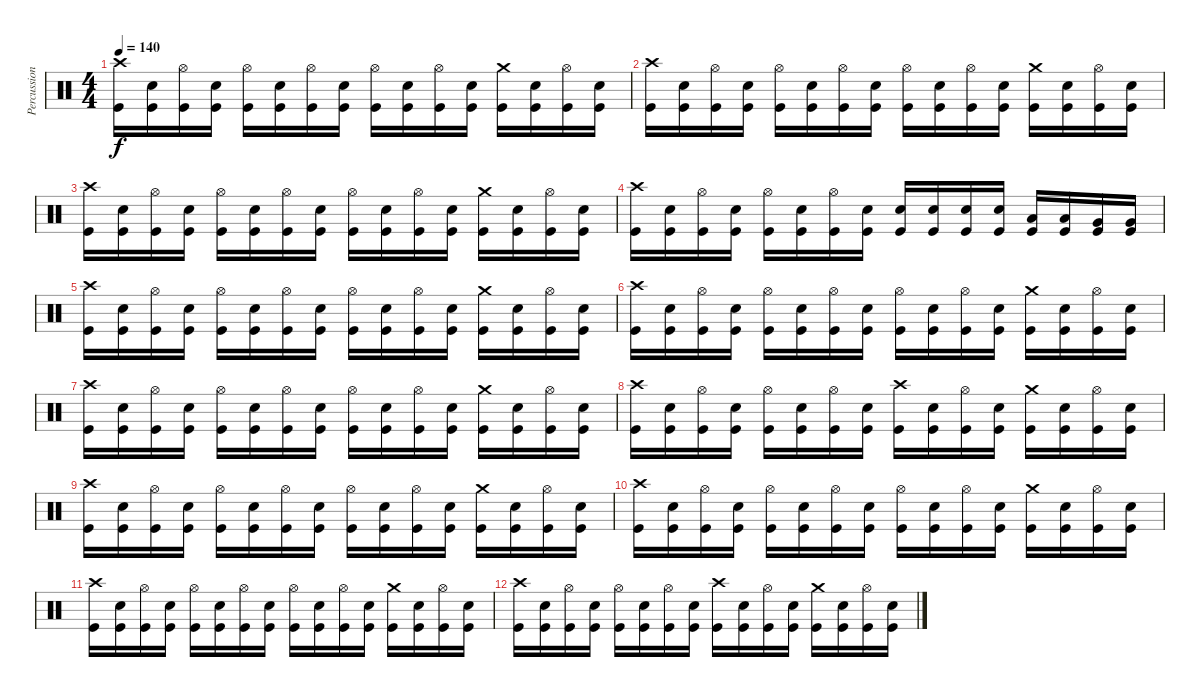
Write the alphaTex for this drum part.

\track ("Percussion" "Percussion") {instrument percussion}
\staff {score}
\articulation defaults
\ts (4 4)
\tempo 140
\clef neutral
\ks c
("Crash high (hit)" "Kick (hit)").16{dy f} ("Snare (hit) 2" "Kick (hit)").16 ("Hi-Hat (open)" "Kick (hit)").16 ("Snare (hit) 2" "Kick (hit)").16 ("Hi-Hat (open)" "Kick (hit)").16 ("Snare (hit) 2" "Kick (hit)").16 ("Hi-Hat (open)" "Kick (hit)").16 ("Snare (hit) 2" "Kick (hit)").16 ("Hi-Hat (open)" "Kick (hit)").16 ("Snare (hit) 2" "Kick (hit)").16 ("Hi-Hat (open)" "Kick (hit)").16 ("Snare (hit) 2" "Kick (hit)").16 ("Crash medium (hit)" "Kick (hit)").16 ("Snare (hit) 2" "Kick (hit)").16 ("Hi-Hat (open)" "Kick (hit)").16 ("Snare (hit) 2" "Kick (hit)").16 |
("Crash high (hit)" "Kick (hit)").16 ("Snare (hit) 2" "Kick (hit)").16 ("Hi-Hat (open)" "Kick (hit)").16 ("Snare (hit) 2" "Kick (hit)").16 ("Hi-Hat (open)" "Kick (hit)").16 ("Snare (hit) 2" "Kick (hit)").16 ("Hi-Hat (open)" "Kick (hit)").16 ("Snare (hit) 2" "Kick (hit)").16 ("Hi-Hat (open)" "Kick (hit)").16 ("Snare (hit) 2" "Kick (hit)").16 ("Hi-Hat (open)" "Kick (hit)").16 ("Snare (hit) 2" "Kick (hit)").16 ("Crash medium (hit)" "Kick (hit)").16 ("Snare (hit) 2" "Kick (hit)").16 ("Hi-Hat (open)" "Kick (hit)").16 ("Snare (hit) 2" "Kick (hit)").16 |
("Crash high (hit)" "Kick (hit)").16 ("Snare (hit) 2" "Kick (hit)").16 ("Hi-Hat (open)" "Kick (hit)").16 ("Snare (hit) 2" "Kick (hit)").16 ("Hi-Hat (open)" "Kick (hit)").16 ("Snare (hit) 2" "Kick (hit)").16 ("Hi-Hat (open)" "Kick (hit)").16 ("Snare (hit) 2" "Kick (hit)").16 ("Hi-Hat (open)" "Kick (hit)").16 ("Snare (hit) 2" "Kick (hit)").16 ("Hi-Hat (open)" "Kick (hit)").16 ("Snare (hit) 2" "Kick (hit)").16 ("Crash medium (hit)" "Kick (hit)").16 ("Snare (hit) 2" "Kick (hit)").16 ("Hi-Hat (open)" "Kick (hit)").16 ("Snare (hit) 2" "Kick (hit)").16 |
("Crash high (hit)" "Kick (hit)").16 ("Snare (hit) 2" "Kick (hit)").16 ("Hi-Hat (open)" "Kick (hit)").16 ("Snare (hit) 2" "Kick (hit)").16 ("Hi-Hat (open)" "Kick (hit)").16 ("Snare (hit) 2" "Kick (hit)").16 ("Hi-Hat (open)" "Kick (hit)").16 ("Snare (hit) 2" "Kick (hit)").16 ("Snare (hit) 2" "Kick (hit)").16 ("Snare (hit) 2" "Kick (hit)").16 ("Snare (hit) 2" "Kick (hit)").16 ("Snare (hit) 2" "Kick (hit)").16 ("Low Tom (hit)" "Kick (hit)").16 ("Low Tom (hit)" "Kick (hit)").16 ("Very Low Tom (hit)" "Kick (hit)").16 ("Very Low Tom (hit)" "Kick (hit)").16 |
("Crash high (hit)" "Kick (hit)").16 ("Snare (hit) 2" "Kick (hit)").16 ("Hi-Hat (open)" "Kick (hit)").16 ("Snare (hit) 2" "Kick (hit)").16 ("Hi-Hat (open)" "Kick (hit)").16 ("Snare (hit) 2" "Kick (hit)").16 ("Hi-Hat (open)" "Kick (hit)").16 ("Snare (hit) 2" "Kick (hit)").16 ("Hi-Hat (open)" "Kick (hit)").16 ("Snare (hit) 2" "Kick (hit)").16 ("Hi-Hat (open)" "Kick (hit)").16 ("Snare (hit) 2" "Kick (hit)").16 ("Crash medium (hit)" "Kick (hit)").16 ("Snare (hit) 2" "Kick (hit)").16 ("Hi-Hat (open)" "Kick (hit)").16 ("Snare (hit) 2" "Kick (hit)").16 |
("Crash high (hit)" "Kick (hit)").16 ("Snare (hit) 2" "Kick (hit)").16 ("Hi-Hat (open)" "Kick (hit)").16 ("Snare (hit) 2" "Kick (hit)").16 ("Hi-Hat (open)" "Kick (hit)").16 ("Snare (hit) 2" "Kick (hit)").16 ("Hi-Hat (open)" "Kick (hit)").16 ("Snare (hit) 2" "Kick (hit)").16 ("Hi-Hat (open)" "Kick (hit)").16 ("Snare (hit) 2" "Kick (hit)").16 ("Hi-Hat (open)" "Kick (hit)").16 ("Snare (hit) 2" "Kick (hit)").16 ("Crash medium (hit)" "Kick (hit)").16 ("Snare (hit) 2" "Kick (hit)").16 ("Hi-Hat (open)" "Kick (hit)").16 ("Snare (hit) 2" "Kick (hit)").16 |
("Crash high (hit)" "Kick (hit)").16 ("Snare (hit) 2" "Kick (hit)").16 ("Hi-Hat (open)" "Kick (hit)").16 ("Snare (hit) 2" "Kick (hit)").16 ("Hi-Hat (open)" "Kick (hit)").16 ("Snare (hit) 2" "Kick (hit)").16 ("Hi-Hat (open)" "Kick (hit)").16 ("Snare (hit) 2" "Kick (hit)").16 ("Hi-Hat (open)" "Kick (hit)").16 ("Snare (hit) 2" "Kick (hit)").16 ("Hi-Hat (open)" "Kick (hit)").16 ("Snare (hit) 2" "Kick (hit)").16 ("Crash medium (hit)" "Kick (hit)").16 ("Snare (hit) 2" "Kick (hit)").16 ("Hi-Hat (open)" "Kick (hit)").16 ("Snare (hit) 2" "Kick (hit)").16 |
("Crash high (hit)" "Kick (hit)").16 ("Snare (hit) 2" "Kick (hit)").16 ("Hi-Hat (open)" "Kick (hit)").16 ("Snare (hit) 2" "Kick (hit)").16 ("Hi-Hat (open)" "Kick (hit)").16 ("Snare (hit) 2" "Kick (hit)").16 ("Hi-Hat (open)" "Kick (hit)").16 ("Snare (hit) 2" "Kick (hit)").16 ("Crash high (hit)" "Kick (hit)").16 ("Snare (hit) 2" "Kick (hit)").16 ("Hi-Hat (open)" "Kick (hit)").16 ("Snare (hit) 2" "Kick (hit)").16 ("Crash medium (hit)" "Kick (hit)").16 ("Snare (hit) 2" "Kick (hit)").16 ("Hi-Hat (open)" "Kick (hit)").16 ("Snare (hit) 2" "Kick (hit)").16 |
("Crash high (hit)" "Kick (hit)").16 ("Snare (hit) 2" "Kick (hit)").16 ("Hi-Hat (open)" "Kick (hit)").16 ("Snare (hit) 2" "Kick (hit)").16 ("Hi-Hat (open)" "Kick (hit)").16 ("Snare (hit) 2" "Kick (hit)").16 ("Hi-Hat (open)" "Kick (hit)").16 ("Snare (hit) 2" "Kick (hit)").16 ("Hi-Hat (open)" "Kick (hit)").16 ("Snare (hit) 2" "Kick (hit)").16 ("Hi-Hat (open)" "Kick (hit)").16 ("Snare (hit) 2" "Kick (hit)").16 ("Crash medium (hit)" "Kick (hit)").16 ("Snare (hit) 2" "Kick (hit)").16 ("Hi-Hat (open)" "Kick (hit)").16 ("Snare (hit) 2" "Kick (hit)").16 |
("Crash high (hit)" "Kick (hit)").16 ("Snare (hit) 2" "Kick (hit)").16 ("Hi-Hat (open)" "Kick (hit)").16 ("Snare (hit) 2" "Kick (hit)").16 ("Hi-Hat (open)" "Kick (hit)").16 ("Snare (hit) 2" "Kick (hit)").16 ("Hi-Hat (open)" "Kick (hit)").16 ("Snare (hit) 2" "Kick (hit)").16 ("Hi-Hat (open)" "Kick (hit)").16 ("Snare (hit) 2" "Kick (hit)").16 ("Hi-Hat (open)" "Kick (hit)").16 ("Snare (hit) 2" "Kick (hit)").16 ("Crash medium (hit)" "Kick (hit)").16 ("Snare (hit) 2" "Kick (hit)").16 ("Hi-Hat (open)" "Kick (hit)").16 ("Snare (hit) 2" "Kick (hit)").16 |
("Crash high (hit)" "Kick (hit)").16 ("Snare (hit) 2" "Kick (hit)").16 ("Hi-Hat (open)" "Kick (hit)").16 ("Snare (hit) 2" "Kick (hit)").16 ("Hi-Hat (open)" "Kick (hit)").16 ("Snare (hit) 2" "Kick (hit)").16 ("Hi-Hat (open)" "Kick (hit)").16 ("Snare (hit) 2" "Kick (hit)").16 ("Hi-Hat (open)" "Kick (hit)").16 ("Snare (hit) 2" "Kick (hit)").16 ("Hi-Hat (open)" "Kick (hit)").16 ("Snare (hit) 2" "Kick (hit)").16 ("Crash medium (hit)" "Kick (hit)").16 ("Snare (hit) 2" "Kick (hit)").16 ("Hi-Hat (open)" "Kick (hit)").16 ("Snare (hit) 2" "Kick (hit)").16 |
("Crash high (hit)" "Kick (hit)").16 ("Snare (hit) 2" "Kick (hit)").16 ("Hi-Hat (open)" "Kick (hit)").16 ("Snare (hit) 2" "Kick (hit)").16 ("Hi-Hat (open)" "Kick (hit)").16 ("Snare (hit) 2" "Kick (hit)").16 ("Hi-Hat (open)" "Kick (hit)").16 ("Snare (hit) 2" "Kick (hit)").16 ("Crash high (hit)" "Kick (hit)").16 ("Snare (hit) 2" "Kick (hit)").16 ("Hi-Hat (open)" "Kick (hit)").16 ("Snare (hit) 2" "Kick (hit)").16 ("Crash medium (hit)" "Kick (hit)").16 ("Snare (hit) 2" "Kick (hit)").16 ("Hi-Hat (open)" "Kick (hit)").16 ("Snare (hit) 2" "Kick (hit)").16
